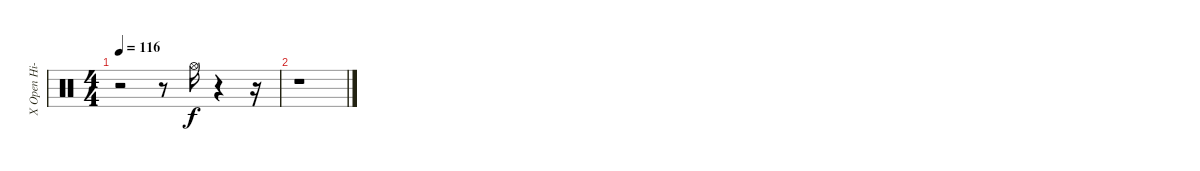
\track ("X Open Hi-Hat       " "X Open Hi-") {instrument percussion}
\staff {score}
\articulation defaults
\ts (4 4)
\tempo 116
\clef neutral
\ks c
r.2{dy f} r.8 "Hi-Hat (open)".16 r.4 r.16 |
r.1
